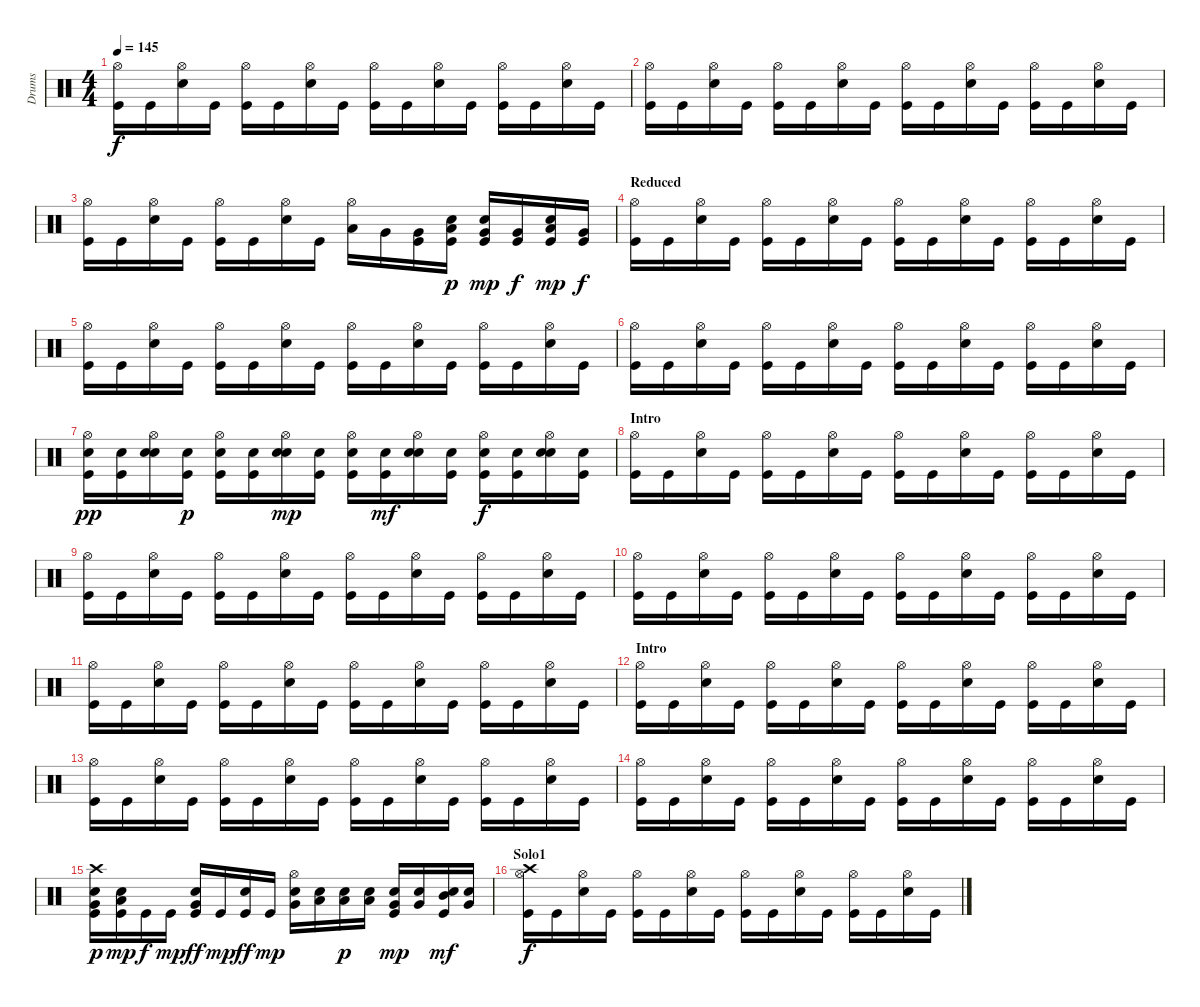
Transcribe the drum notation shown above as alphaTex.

\track ("Drums" "Drums") {instrument percussion}
\staff {score}
\articulation defaults
\ts (4 4)
\tempo 145
\clef neutral
\ks c
("Hi-Hat (open)" "Kick (hit)").16{dy f} "Kick (hit)".16 ("Hi-Hat (open)" "Electric Snare (hit)").16 "Kick (hit)".16 ("Hi-Hat (open)" "Kick (hit)").16 "Kick (hit)".16 ("Hi-Hat (open)" "Electric Snare (hit)").16 "Kick (hit)".16 ("Hi-Hat (open)" "Kick (hit)").16 "Kick (hit)".16 ("Hi-Hat (open)" "Electric Snare (hit)").16 "Kick (hit)".16 ("Hi-Hat (open)" "Kick (hit)").16 "Kick (hit)".16 ("Hi-Hat (open)" "Electric Snare (hit)").16 "Kick (hit)".16 |
("Hi-Hat (open)" "Kick (hit)").16 "Kick (hit)".16 ("Hi-Hat (open)" "Electric Snare (hit)").16 "Kick (hit)".16 ("Hi-Hat (open)" "Kick (hit)").16 "Kick (hit)".16 ("Hi-Hat (open)" "Electric Snare (hit)").16 "Kick (hit)".16 ("Hi-Hat (open)" "Kick (hit)").16 "Kick (hit)".16 ("Hi-Hat (open)" "Electric Snare (hit)").16 "Kick (hit)".16 ("Hi-Hat (open)" "Kick (hit)").16 "Kick (hit)".16 ("Hi-Hat (open)" "Electric Snare (hit)").16 "Kick (hit)".16 |
("Hi-Hat (open)" "Kick (hit)").16 "Kick (hit)".16 ("Hi-Hat (open)" "Electric Snare (hit)").16 "Kick (hit)".16 ("Hi-Hat (open)" "Kick (hit)").16 "Kick (hit)".16 ("Hi-Hat (open)" "Electric Snare (hit)").16 "Kick (hit)".16 ("Hi-Hat (open)" "Low Tom (hit)").16 "Very Low Tom (hit)".16 ("Very Low Tom (hit)" "Kick (hit)").16 ("Snare (hit) 2" "Low Tom (hit)" "Kick (hit)").16{dy p} ("Snare (hit) 2" "Very Low Tom (hit)" "Kick (hit)").16{dy mp} ("Very Low Tom (hit)" "Kick (hit)").16{dy f} ("Snare (hit) 2" "Low Floor Tom (hit)" "Kick (hit)").16{dy mp} ("Very Low Tom (hit)" "Kick (hit)").16{dy f} |
\section ("" "Reduced")
("Hi-Hat (open)" "Kick (hit)").16 "Kick (hit)".16 ("Hi-Hat (open)" "Electric Snare (hit)").16 "Kick (hit)".16 ("Hi-Hat (open)" "Kick (hit)").16 "Kick (hit)".16 ("Hi-Hat (open)" "Electric Snare (hit)").16 "Kick (hit)".16 ("Hi-Hat (open)" "Kick (hit)").16 "Kick (hit)".16 ("Hi-Hat (open)" "Electric Snare (hit)").16 "Kick (hit)".16 ("Hi-Hat (open)" "Kick (hit)").16 "Kick (hit)".16 ("Hi-Hat (open)" "Electric Snare (hit)").16 "Kick (hit)".16 |
("Hi-Hat (open)" "Kick (hit)").16 "Kick (hit)".16 ("Hi-Hat (open)" "Electric Snare (hit)").16 "Kick (hit)".16 ("Hi-Hat (open)" "Kick (hit)").16 "Kick (hit)".16 ("Hi-Hat (open)" "Electric Snare (hit)").16 "Kick (hit)".16 ("Hi-Hat (open)" "Kick (hit)").16 "Kick (hit)".16 ("Hi-Hat (open)" "Electric Snare (hit)").16 "Kick (hit)".16 ("Hi-Hat (open)" "Kick (hit)").16 "Kick (hit)".16 ("Hi-Hat (open)" "Electric Snare (hit)").16 "Kick (hit)".16 |
("Hi-Hat (open)" "Kick (hit)").16 "Kick (hit)".16 ("Hi-Hat (open)" "Electric Snare (hit)").16 "Kick (hit)".16 ("Hi-Hat (open)" "Kick (hit)").16 "Kick (hit)".16 ("Hi-Hat (open)" "Electric Snare (hit)").16 "Kick (hit)".16 ("Hi-Hat (open)" "Kick (hit)").16 "Kick (hit)".16 ("Hi-Hat (open)" "Electric Snare (hit)").16 "Kick (hit)".16 ("Hi-Hat (open)" "Kick (hit)").16 "Kick (hit)".16 ("Hi-Hat (open)" "Electric Snare (hit)").16 "Kick (hit)".16 |
("Hi-Hat (open)" "Snare (hit) 2" "Kick (hit)").16{dy pp} ("Snare (hit) 2" "Kick (hit)").16 ("Hi-Hat (open)" "Electric Snare (hit)" "Snare (hit) 2").16 ("Snare (hit) 2" "Kick (hit)").16{dy p} ("Hi-Hat (open)" "Snare (hit) 2" "Kick (hit)").16 ("Snare (hit) 2" "Kick (hit)").16 ("Hi-Hat (open)" "Electric Snare (hit)" "Snare (hit) 2").16{dy mp} ("Snare (hit) 2" "Kick (hit)").16 ("Hi-Hat (open)" "Snare (hit) 2" "Kick (hit)").16 ("Snare (hit) 2" "Kick (hit)").16{dy mf} ("Hi-Hat (open)" "Electric Snare (hit)" "Snare (hit) 2").16 ("Snare (hit) 2" "Kick (hit)").16 ("Hi-Hat (open)" "Snare (hit) 2" "Kick (hit)").16{dy f} ("Snare (hit) 2" "Kick (hit)").16 ("Hi-Hat (open)" "Electric Snare (hit)" "Snare (hit) 2").16 ("Snare (hit) 2" "Kick (hit)").16 |
\section ("" "Intro")
("Hi-Hat (open)" "Kick (hit)").16 "Kick (hit)".16 ("Hi-Hat (open)" "Electric Snare (hit)").16 "Kick (hit)".16 ("Hi-Hat (open)" "Kick (hit)").16 "Kick (hit)".16 ("Hi-Hat (open)" "Electric Snare (hit)").16 "Kick (hit)".16 ("Hi-Hat (open)" "Kick (hit)").16 "Kick (hit)".16 ("Hi-Hat (open)" "Electric Snare (hit)").16 "Kick (hit)".16 ("Hi-Hat (open)" "Kick (hit)").16 "Kick (hit)".16 ("Hi-Hat (open)" "Electric Snare (hit)").16 "Kick (hit)".16 |
("Hi-Hat (open)" "Kick (hit)").16 "Kick (hit)".16 ("Hi-Hat (open)" "Electric Snare (hit)").16 "Kick (hit)".16 ("Hi-Hat (open)" "Kick (hit)").16 "Kick (hit)".16 ("Hi-Hat (open)" "Electric Snare (hit)").16 "Kick (hit)".16 ("Hi-Hat (open)" "Kick (hit)").16 "Kick (hit)".16 ("Hi-Hat (open)" "Electric Snare (hit)").16 "Kick (hit)".16 ("Hi-Hat (open)" "Kick (hit)").16 "Kick (hit)".16 ("Hi-Hat (open)" "Electric Snare (hit)").16 "Kick (hit)".16 |
("Hi-Hat (open)" "Kick (hit)").16 "Kick (hit)".16 ("Hi-Hat (open)" "Electric Snare (hit)").16 "Kick (hit)".16 ("Hi-Hat (open)" "Kick (hit)").16 "Kick (hit)".16 ("Hi-Hat (open)" "Electric Snare (hit)").16 "Kick (hit)".16 ("Hi-Hat (open)" "Kick (hit)").16 "Kick (hit)".16 ("Hi-Hat (open)" "Electric Snare (hit)").16 "Kick (hit)".16 ("Hi-Hat (open)" "Kick (hit)").16 "Kick (hit)".16 ("Hi-Hat (open)" "Electric Snare (hit)").16 "Kick (hit)".16 |
("Hi-Hat (open)" "Kick (hit)").16 "Kick (hit)".16 ("Hi-Hat (open)" "Electric Snare (hit)").16 "Kick (hit)".16 ("Hi-Hat (open)" "Kick (hit)").16 "Kick (hit)".16 ("Hi-Hat (open)" "Electric Snare (hit)").16 "Kick (hit)".16 ("Hi-Hat (open)" "Kick (hit)").16 "Kick (hit)".16 ("Hi-Hat (open)" "Electric Snare (hit)").16 "Kick (hit)".16 ("Hi-Hat (open)" "Kick (hit)").16 "Kick (hit)".16 ("Hi-Hat (open)" "Electric Snare (hit)").16 "Kick (hit)".16 |
\section ("" "Intro")
("Hi-Hat (open)" "Kick (hit)").16 "Kick (hit)".16 ("Hi-Hat (open)" "Electric Snare (hit)").16 "Kick (hit)".16 ("Hi-Hat (open)" "Kick (hit)").16 "Kick (hit)".16 ("Hi-Hat (open)" "Electric Snare (hit)").16 "Kick (hit)".16 ("Hi-Hat (open)" "Kick (hit)").16 "Kick (hit)".16 ("Hi-Hat (open)" "Electric Snare (hit)").16 "Kick (hit)".16 ("Hi-Hat (open)" "Kick (hit)").16 "Kick (hit)".16 ("Hi-Hat (open)" "Electric Snare (hit)").16 "Kick (hit)".16 |
("Hi-Hat (open)" "Kick (hit)").16 "Kick (hit)".16 ("Hi-Hat (open)" "Electric Snare (hit)").16 "Kick (hit)".16 ("Hi-Hat (open)" "Kick (hit)").16 "Kick (hit)".16 ("Hi-Hat (open)" "Electric Snare (hit)").16 "Kick (hit)".16 ("Hi-Hat (open)" "Kick (hit)").16 "Kick (hit)".16 ("Hi-Hat (open)" "Electric Snare (hit)").16 "Kick (hit)".16 ("Hi-Hat (open)" "Kick (hit)").16 "Kick (hit)".16 ("Hi-Hat (open)" "Electric Snare (hit)").16 "Kick (hit)".16 |
("Hi-Hat (open)" "Kick (hit)").16 "Kick (hit)".16 ("Hi-Hat (open)" "Electric Snare (hit)").16 "Kick (hit)".16 ("Hi-Hat (open)" "Kick (hit)").16 "Kick (hit)".16 ("Hi-Hat (open)" "Electric Snare (hit)").16 "Kick (hit)".16 ("Hi-Hat (open)" "Kick (hit)").16 "Kick (hit)".16 ("Hi-Hat (open)" "Electric Snare (hit)").16 "Kick (hit)".16 ("Hi-Hat (open)" "Kick (hit)").16 "Kick (hit)".16 ("Hi-Hat (open)" "Electric Snare (hit)").16 "Kick (hit)".16 |
("Crash high (hit)" "Snare (hit) 2" "Very Low Tom (hit)" "Kick (hit)").16{dy p} ("Snare (hit) 2" "Low Tom (hit)" "Kick (hit)").16{dy mp} "Kick (hit)".16{dy f} "Kick (hit)".16{dy mp} ("Snare (hit) 2" "Very Low Tom (hit)" "Kick (hit)").16{dy ff} "Kick (hit)".16{dy mp} ("Snare (hit) 2" "Kick (hit)").16{dy ff} "Kick (hit)".16{dy mp} ("Hi-Hat (open)" "Snare (hit) 2" "Very Low Tom (hit)").16 ("Snare (hit) 2" "Low Tom (hit)").16 ("Snare (hit) 2" "Low Tom (hit)").16{dy p} ("Snare (hit) 2" "Low Tom (hit)").16 ("Snare (hit) 2" "Very Low Tom (hit)" "Kick (hit)").16{dy mp} ("Snare (hit) 2" "Very Low Tom (hit)").16 ("Snare (hit) 2" "Mid Tom (hit)" "Kick (hit)").16{dy mf} ("Snare (hit) 2" "Very Low Tom (hit)").16 |
\section ("" "Solo1")
("Hi-Hat (open)" "Crash high (hit)" "Kick (hit)").16{dy f} "Kick (hit)".16 ("Hi-Hat (open)" "Electric Snare (hit)").16 "Kick (hit)".16 ("Hi-Hat (open)" "Kick (hit)").16 "Kick (hit)".16 ("Hi-Hat (open)" "Electric Snare (hit)").16 "Kick (hit)".16 ("Hi-Hat (open)" "Kick (hit)").16 "Kick (hit)".16 ("Hi-Hat (open)" "Electric Snare (hit)").16 "Kick (hit)".16 ("Hi-Hat (open)" "Kick (hit)").16 "Kick (hit)".16 ("Hi-Hat (open)" "Electric Snare (hit)").16 "Kick (hit)".16
